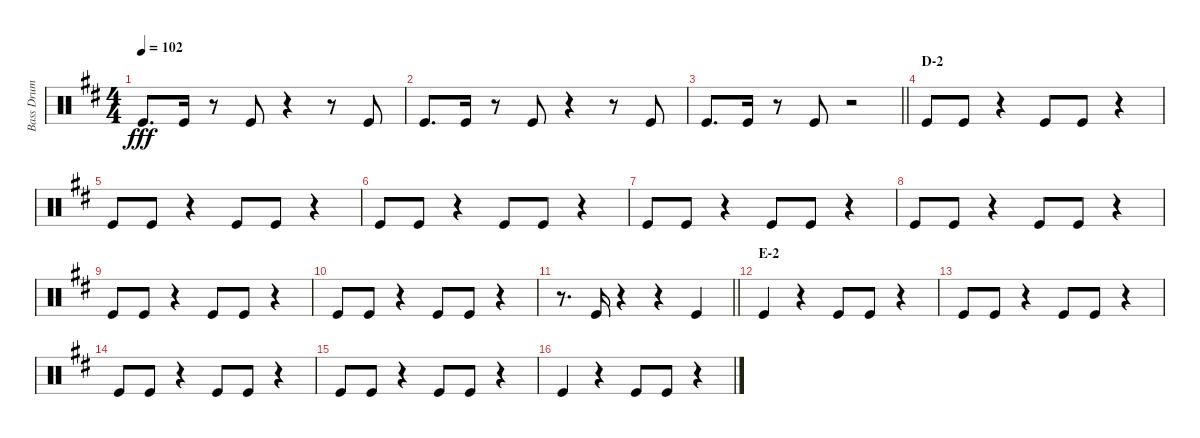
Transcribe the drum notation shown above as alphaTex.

\track ("Bass Drum" "Bass Drum") {instrument percussion}
\staff {score}
\articulation defaults
\ts (4 4)
\tempo 102
\clef neutral
\ks d "Kick (hit)".8{d dy fff} "Kick (hit)".16
r.8 "Kick (hit)".8 r.4 r.8 "Kick (hit)".8 |
"Kick (hit)".8{d} "Kick (hit)".16 r.8 "Kick (hit)".8 r.4 r.8 "Kick (hit)".8 |
\barLineRight lightlight "Kick (hit)".8{d} "Kick (hit)".16
r.8 "Kick (hit)".8 r.2 |
\section ("" "D-2")
"Kick (hit)".8 "Kick (hit)".8 r.4 "Kick (hit)".8 "Kick (hit)".8 r.4 |
"Kick (hit)".8 "Kick (hit)".8 r.4 "Kick (hit)".8 "Kick (hit)".8 r.4 |
"Kick (hit)".8 "Kick (hit)".8 r.4 "Kick (hit)".8 "Kick (hit)".8 r.4 |
"Kick (hit)".8 "Kick (hit)".8 r.4 "Kick (hit)".8 "Kick (hit)".8 r.4 |
"Kick (hit)".8 "Kick (hit)".8 r.4 "Kick (hit)".8 "Kick (hit)".8 r.4 |
"Kick (hit)".8 "Kick (hit)".8 r.4 "Kick (hit)".8 "Kick (hit)".8 r.4 |
"Kick (hit)".8 "Kick (hit)".8 r.4 "Kick (hit)".8 "Kick (hit)".8 r.4 |
\barLineRight lightlight
r.8{d} "Kick (hit)".16 r.4 r.4 "Kick (hit)".4 |
\section ("" "E-2")
"Kick (hit)".4 r.4 "Kick (hit)".8 "Kick (hit)".8 r.4 |
"Kick (hit)".8 "Kick (hit)".8 r.4 "Kick (hit)".8 "Kick (hit)".8 r.4 |
"Kick (hit)".8 "Kick (hit)".8 r.4 "Kick (hit)".8 "Kick (hit)".8 r.4 |
"Kick (hit)".8 "Kick (hit)".8 r.4 "Kick (hit)".8 "Kick (hit)".8 r.4 |
"Kick (hit)".4 r.4 "Kick (hit)".8 "Kick (hit)".8 r.4
